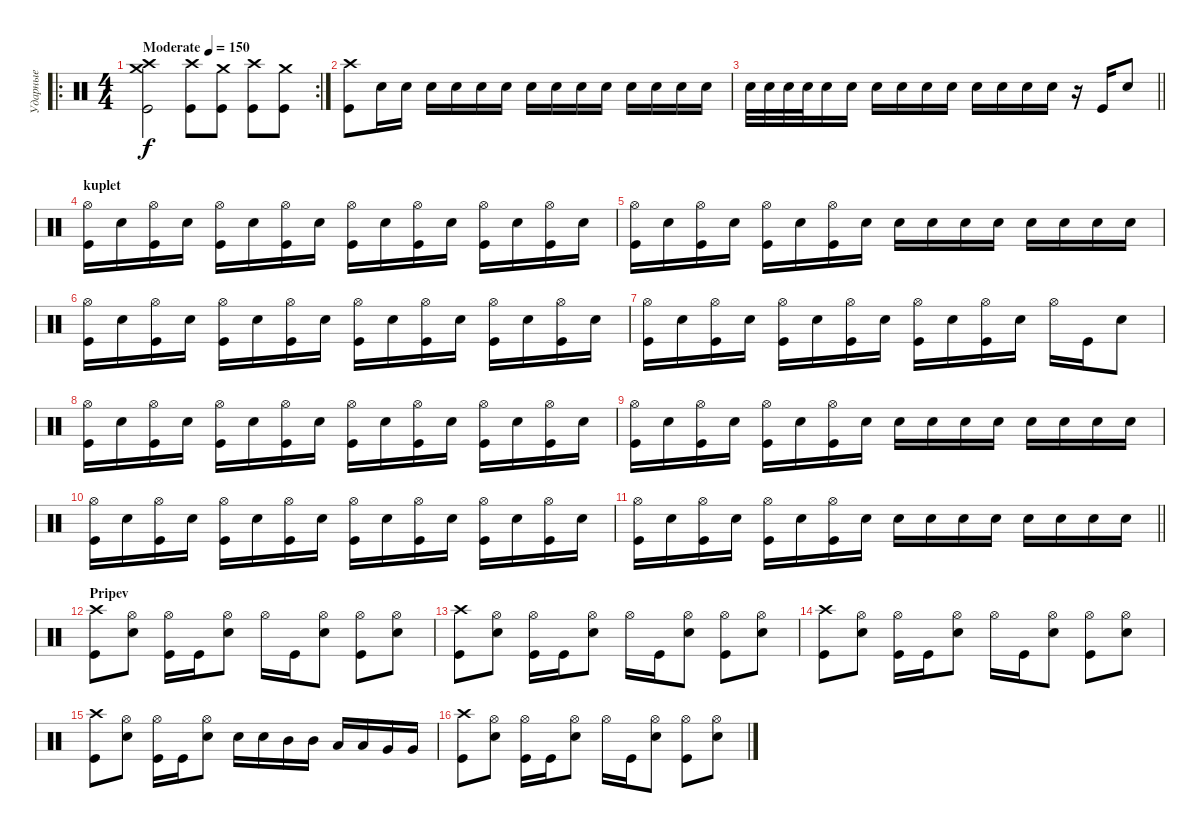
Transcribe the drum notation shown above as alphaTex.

\track ("Ударные" "Ударные") {instrument percussion}
\staff {score}
\articulation defaults
\ro
\rc 2
\ts (4 4)
\tempo (150 "Moderate")
\clef neutral
\ks c
("Crash medium (hit)" "Crash high (hit)" "Kick (hit)").2{dy f} ("Crash high (hit)" "Kick (hit)").8 ("Crash medium (hit)" "Kick (hit)").8 ("Crash high (hit)" "Kick (hit)").8 ("Crash medium (hit)" "Kick (hit)").8 |
("Crash high (hit)" "Kick (hit)").8 "Electric Snare (hit)".16 "Electric Snare (hit)".16 "Electric Snare (hit)".16 "Electric Snare (hit)".16 "Electric Snare (hit)".16 "Electric Snare (hit)".16 "Electric Snare (hit)".16 "Electric Snare (hit)".16 "Electric Snare (hit)".16 "Electric Snare (hit)".16 "Electric Snare (hit)".16 "Electric Snare (hit)".16 "Electric Snare (hit)".16 "Electric Snare (hit)".16 |
\barLineRight lightlight "Electric Snare (hit)".32 "Electric Snare (hit)".32 "Electric Snare (hit)".32 "Electric Snare (hit)".32 "Electric Snare (hit)".16 "Electric Snare (hit)".16 "Electric Snare (hit)".16 "Electric Snare (hit)".16 "Electric Snare (hit)".16 "Electric Snare (hit)".16 "Electric Snare (hit)".16 "Electric Snare (hit)".16 "Electric Snare (hit)".16 "Electric Snare (hit)".16
r.16 "Kick (hit)".16 "Electric Snare (hit)".8 |
\section ("" "kuplet")
("Hi-Hat (open)" "Kick (hit)").16 "Electric Snare (hit)".16 ("Hi-Hat (open)" "Kick (hit)").16 "Electric Snare (hit)".16 ("Hi-Hat (open)" "Kick (hit)").16 "Electric Snare (hit)".16 ("Hi-Hat (open)" "Kick (hit)").16 "Electric Snare (hit)".16 ("Hi-Hat (open)" "Kick (hit)").16 "Electric Snare (hit)".16 ("Hi-Hat (open)" "Kick (hit)").16 "Electric Snare (hit)".16 ("Hi-Hat (open)" "Kick (hit)").16 "Electric Snare (hit)".16 ("Hi-Hat (open)" "Kick (hit)").16 "Electric Snare (hit)".16 |
("Hi-Hat (open)" "Kick (hit)").16 "Electric Snare (hit)".16 ("Hi-Hat (open)" "Kick (hit)").16 "Electric Snare (hit)".16 ("Hi-Hat (open)" "Kick (hit)").16 "Electric Snare (hit)".16 ("Hi-Hat (open)" "Kick (hit)").16 "Electric Snare (hit)".16 "Electric Snare (hit)".16 "Electric Snare (hit)".16 "Electric Snare (hit)".16 "Electric Snare (hit)".16 "Electric Snare (hit)".16 "Electric Snare (hit)".16 "Electric Snare (hit)".16 "Electric Snare (hit)".16 |
("Hi-Hat (open)" "Kick (hit)").16 "Electric Snare (hit)".16 ("Hi-Hat (open)" "Kick (hit)").16 "Electric Snare (hit)".16 ("Hi-Hat (open)" "Kick (hit)").16 "Electric Snare (hit)".16 ("Hi-Hat (open)" "Kick (hit)").16 "Electric Snare (hit)".16 ("Hi-Hat (open)" "Kick (hit)").16 "Electric Snare (hit)".16 ("Hi-Hat (open)" "Kick (hit)").16 "Electric Snare (hit)".16 ("Hi-Hat (open)" "Kick (hit)").16 "Electric Snare (hit)".16 ("Hi-Hat (open)" "Kick (hit)").16 "Electric Snare (hit)".16 |
("Hi-Hat (open)" "Kick (hit)").16 "Electric Snare (hit)".16 ("Hi-Hat (open)" "Kick (hit)").16 "Electric Snare (hit)".16 ("Hi-Hat (open)" "Kick (hit)").16 "Electric Snare (hit)".16 ("Hi-Hat (open)" "Kick (hit)").16 "Electric Snare (hit)".16 ("Hi-Hat (open)" "Kick (hit)").16 "Electric Snare (hit)".16 ("Hi-Hat (open)" "Kick (hit)").16 "Electric Snare (hit)".16 "Hi-Hat (open)".16 "Kick (hit)".16 "Electric Snare (hit)".8 |
("Hi-Hat (open)" "Kick (hit)").16 "Electric Snare (hit)".16 ("Hi-Hat (open)" "Kick (hit)").16 "Electric Snare (hit)".16 ("Hi-Hat (open)" "Kick (hit)").16 "Electric Snare (hit)".16 ("Hi-Hat (open)" "Kick (hit)").16 "Electric Snare (hit)".16 ("Hi-Hat (open)" "Kick (hit)").16 "Electric Snare (hit)".16 ("Hi-Hat (open)" "Kick (hit)").16 "Electric Snare (hit)".16 ("Hi-Hat (open)" "Kick (hit)").16 "Electric Snare (hit)".16 ("Hi-Hat (open)" "Kick (hit)").16 "Electric Snare (hit)".16 |
("Hi-Hat (open)" "Kick (hit)").16 "Electric Snare (hit)".16 ("Hi-Hat (open)" "Kick (hit)").16 "Electric Snare (hit)".16 ("Hi-Hat (open)" "Kick (hit)").16 "Electric Snare (hit)".16 ("Hi-Hat (open)" "Kick (hit)").16 "Electric Snare (hit)".16 "Electric Snare (hit)".16 "Electric Snare (hit)".16 "Electric Snare (hit)".16 "Electric Snare (hit)".16 "Electric Snare (hit)".16 "Electric Snare (hit)".16 "Electric Snare (hit)".16 "Electric Snare (hit)".16 |
("Hi-Hat (open)" "Kick (hit)").16 "Electric Snare (hit)".16 ("Hi-Hat (open)" "Kick (hit)").16 "Electric Snare (hit)".16 ("Hi-Hat (open)" "Kick (hit)").16 "Electric Snare (hit)".16 ("Hi-Hat (open)" "Kick (hit)").16 "Electric Snare (hit)".16 ("Hi-Hat (open)" "Kick (hit)").16 "Electric Snare (hit)".16 ("Hi-Hat (open)" "Kick (hit)").16 "Electric Snare (hit)".16 ("Hi-Hat (open)" "Kick (hit)").16 "Electric Snare (hit)".16 ("Hi-Hat (open)" "Kick (hit)").16 "Electric Snare (hit)".16 |
\barLineRight lightlight
("Hi-Hat (open)" "Kick (hit)").16 "Electric Snare (hit)".16 ("Hi-Hat (open)" "Kick (hit)").16 "Electric Snare (hit)".16 ("Hi-Hat (open)" "Kick (hit)").16 "Electric Snare (hit)".16 ("Hi-Hat (open)" "Kick (hit)").16 "Electric Snare (hit)".16 "Electric Snare (hit)".16 "Electric Snare (hit)".16 "Electric Snare (hit)".16 "Electric Snare (hit)".16 "Electric Snare (hit)".16 "Electric Snare (hit)".16 "Electric Snare (hit)".16 "Electric Snare (hit)".16 |
\section ("" "Pripev")
("Crash high (hit)" "Kick (hit)").8 ("Hi-Hat (open)" "Electric Snare (hit)").8 ("Hi-Hat (open)" "Kick (hit)").16 "Kick (hit)".16 ("Hi-Hat (open)" "Electric Snare (hit)").8 "Hi-Hat (open)".16 "Kick (hit)".16 ("Hi-Hat (open)" "Electric Snare (hit)").8 ("Hi-Hat (open)" "Kick (hit)").8 ("Hi-Hat (open)" "Electric Snare (hit)").8 |
("Crash high (hit)" "Kick (hit)").8 ("Hi-Hat (open)" "Electric Snare (hit)").8 ("Hi-Hat (open)" "Kick (hit)").16 "Kick (hit)".16 ("Hi-Hat (open)" "Electric Snare (hit)").8 "Hi-Hat (open)".16 "Kick (hit)".16 ("Hi-Hat (open)" "Electric Snare (hit)").8 ("Hi-Hat (open)" "Kick (hit)").8 ("Hi-Hat (open)" "Electric Snare (hit)").8 |
("Crash high (hit)" "Kick (hit)").8 ("Hi-Hat (open)" "Electric Snare (hit)").8 ("Hi-Hat (open)" "Kick (hit)").16 "Kick (hit)".16 ("Hi-Hat (open)" "Electric Snare (hit)").8 "Hi-Hat (open)".16 "Kick (hit)".16 ("Hi-Hat (open)" "Electric Snare (hit)").8 ("Hi-Hat (open)" "Kick (hit)").8 ("Hi-Hat (open)" "Electric Snare (hit)").8 |
("Crash high (hit)" "Kick (hit)").8 ("Hi-Hat (open)" "Electric Snare (hit)").8 ("Hi-Hat (open)" "Kick (hit)").16 "Kick (hit)".16 ("Hi-Hat (open)" "Electric Snare (hit)").8 "Electric Snare (hit)".16 "Electric Snare (hit)".16 "Mid Tom (hit)".16 "Mid Tom (hit)".16 "Low Tom (hit)".16 "Low Tom (hit)".16 "Very Low Tom (hit)".16 "Very Low Tom (hit)".16 |
("Crash high (hit)" "Kick (hit)").8 ("Hi-Hat (open)" "Electric Snare (hit)").8 ("Hi-Hat (open)" "Kick (hit)").16 "Kick (hit)".16 ("Hi-Hat (open)" "Electric Snare (hit)").8 "Hi-Hat (open)".16 "Kick (hit)".16 ("Hi-Hat (open)" "Electric Snare (hit)").8 ("Hi-Hat (open)" "Kick (hit)").8 ("Hi-Hat (open)" "Electric Snare (hit)").8
